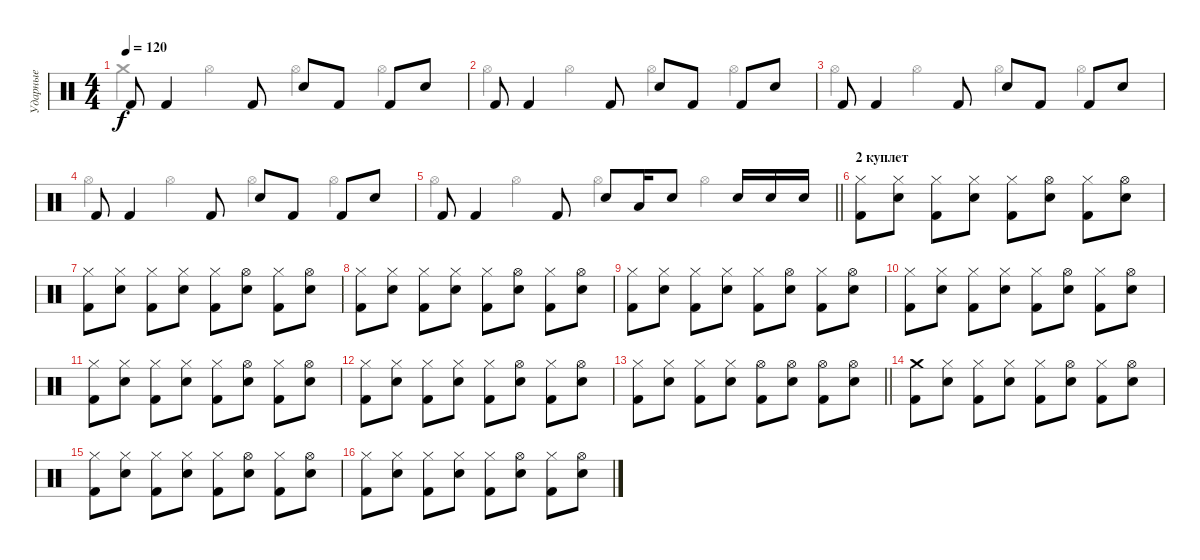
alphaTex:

\track ("Ударные" "Ударные") {instrument percussion}
\staff {score}
\articulation defaults
\voice
\ts (4 4)
\tempo 120
\clef neutral
\ks c "Kick (hit) 2".8{dy f} "Kick (hit) 2".4 "Kick (hit) 2".8 "Electric Snare (hit)".8 "Kick (hit) 2".8 "Kick (hit) 2".8 "Electric Snare (hit)".8
|
"Kick (hit) 2".8 "Kick (hit) 2".4 "Kick (hit) 2".8 "Electric Snare (hit)".8 "Kick (hit) 2".8 "Kick (hit) 2".8 "Electric Snare (hit)".8 |
"Kick (hit) 2".8 "Kick (hit) 2".4 "Kick (hit) 2".8 "Electric Snare (hit)".8 "Kick (hit) 2".8 "Kick (hit) 2".8 "Electric Snare (hit)".8 |
"Kick (hit) 2".8 "Kick (hit) 2".4 "Kick (hit) 2".8 "Electric Snare (hit)".8 "Kick (hit) 2".8 "Kick (hit) 2".8 "Electric Snare (hit)".8 |
\barLineRight lightlight "Kick (hit) 2".8 "Kick (hit) 2".4 "Kick (hit) 2".8 "Electric Snare (hit)".8 "Low Tom (hit)".16 "Electric Snare (hit)".8 "Electric Snare (hit)".16 "Electric Snare (hit)".16 "Electric Snare (hit)".16
|
\section ("" "2 куплет")
("Hi-Hat (closed)" "Kick (hit) 2").8 ("Hi-Hat (closed)" "Electric Snare (hit)").8 ("Hi-Hat (closed)" "Kick (hit) 2").8 ("Hi-Hat (closed)" "Electric Snare (hit)").8 ("Hi-Hat (closed)" "Kick (hit) 2").8 ("Hi-Hat (open)" "Electric Snare (hit)").8 ("Hi-Hat (closed)" "Kick (hit) 2").8 ("Hi-Hat (open)" "Electric Snare (hit)").8 |
("Hi-Hat (closed)" "Kick (hit) 2").8 ("Hi-Hat (closed)" "Electric Snare (hit)").8 ("Hi-Hat (closed)" "Kick (hit) 2").8 ("Hi-Hat (closed)" "Electric Snare (hit)").8 ("Hi-Hat (closed)" "Kick (hit) 2").8 ("Hi-Hat (open)" "Electric Snare (hit)").8 ("Hi-Hat (closed)" "Kick (hit) 2").8 ("Hi-Hat (open)" "Electric Snare (hit)").8 |
("Hi-Hat (closed)" "Kick (hit) 2").8 ("Hi-Hat (closed)" "Electric Snare (hit)").8 ("Hi-Hat (closed)" "Kick (hit) 2").8 ("Hi-Hat (closed)" "Electric Snare (hit)").8 ("Hi-Hat (closed)" "Kick (hit) 2").8 ("Hi-Hat (open)" "Electric Snare (hit)").8 ("Hi-Hat (closed)" "Kick (hit) 2").8 ("Hi-Hat (open)" "Electric Snare (hit)").8 |
("Hi-Hat (closed)" "Kick (hit) 2").8 ("Hi-Hat (closed)" "Electric Snare (hit)").8 ("Hi-Hat (closed)" "Kick (hit) 2").8 ("Hi-Hat (closed)" "Electric Snare (hit)").8 ("Hi-Hat (closed)" "Kick (hit) 2").8 ("Hi-Hat (open)" "Electric Snare (hit)").8 ("Hi-Hat (closed)" "Kick (hit) 2").8 ("Hi-Hat (open)" "Electric Snare (hit)").8 |
("Hi-Hat (closed)" "Kick (hit) 2").8 ("Hi-Hat (closed)" "Electric Snare (hit)").8 ("Hi-Hat (closed)" "Kick (hit) 2").8 ("Hi-Hat (closed)" "Electric Snare (hit)").8 ("Hi-Hat (closed)" "Kick (hit) 2").8 ("Hi-Hat (open)" "Electric Snare (hit)").8 ("Hi-Hat (closed)" "Kick (hit) 2").8 ("Hi-Hat (open)" "Electric Snare (hit)").8 |
("Hi-Hat (closed)" "Kick (hit) 2").8 ("Hi-Hat (closed)" "Electric Snare (hit)").8 ("Hi-Hat (closed)" "Kick (hit) 2").8 ("Hi-Hat (closed)" "Electric Snare (hit)").8 ("Hi-Hat (closed)" "Kick (hit) 2").8 ("Hi-Hat (open)" "Electric Snare (hit)").8 ("Hi-Hat (closed)" "Kick (hit) 2").8 ("Hi-Hat (open)" "Electric Snare (hit)").8 |
("Hi-Hat (closed)" "Kick (hit) 2").8 ("Hi-Hat (closed)" "Electric Snare (hit)").8 ("Hi-Hat (closed)" "Kick (hit) 2").8 ("Hi-Hat (closed)" "Electric Snare (hit)").8 ("Hi-Hat (closed)" "Kick (hit) 2").8 ("Hi-Hat (open)" "Electric Snare (hit)").8 ("Hi-Hat (closed)" "Kick (hit) 2").8 ("Hi-Hat (open)" "Electric Snare (hit)").8 |
\barLineRight lightlight
("Hi-Hat (closed)" "Kick (hit) 2").8 ("Hi-Hat (closed)" "Electric Snare (hit)").8 ("Hi-Hat (closed)" "Kick (hit) 2").8 ("Hi-Hat (closed)" "Electric Snare (hit)").8 ("Hi-Hat (open)" "Kick (hit) 2").8 ("Hi-Hat (open)" "Electric Snare (hit)").8 ("Hi-Hat (open)" "Kick (hit) 2").8 ("Hi-Hat (open)" "Electric Snare (hit)").8 |
("Crash medium (hit)" "Kick (hit) 2").8 ("Hi-Hat (closed)" "Electric Snare (hit)").8 ("Hi-Hat (closed)" "Kick (hit) 2").8 ("Hi-Hat (closed)" "Electric Snare (hit)").8 ("Hi-Hat (closed)" "Kick (hit) 2").8 ("Hi-Hat (open)" "Electric Snare (hit)").8 ("Hi-Hat (closed)" "Kick (hit) 2").8 ("Hi-Hat (open)" "Electric Snare (hit)").8 |
("Hi-Hat (closed)" "Kick (hit) 2").8 ("Hi-Hat (closed)" "Electric Snare (hit)").8 ("Hi-Hat (closed)" "Kick (hit) 2").8 ("Hi-Hat (closed)" "Electric Snare (hit)").8 ("Hi-Hat (closed)" "Kick (hit) 2").8 ("Hi-Hat (open)" "Electric Snare (hit)").8 ("Hi-Hat (closed)" "Kick (hit) 2").8 ("Hi-Hat (open)" "Electric Snare (hit)").8 |
("Hi-Hat (closed)" "Kick (hit) 2").8 ("Hi-Hat (closed)" "Electric Snare (hit)").8 ("Hi-Hat (closed)" "Kick (hit) 2").8 ("Hi-Hat (closed)" "Electric Snare (hit)").8 ("Hi-Hat (closed)" "Kick (hit) 2").8 ("Hi-Hat (open)" "Electric Snare (hit)").8 ("Hi-Hat (closed)" "Kick (hit) 2").8 ("Hi-Hat (open)" "Electric Snare (hit)").8
\voice
\clef neutral
\ottava regular
\simile none
\ks c "Crash medium (hit)".4{dy f} "Hi-Hat (open)".4 "Hi-Hat (open)".4 "Hi-Hat (open)".4
|
"Hi-Hat (open)".4 "Hi-Hat (open)".4 "Hi-Hat (open)".4 "Hi-Hat (open)".4 |
"Hi-Hat (open)".4 "Hi-Hat (open)".4 "Hi-Hat (open)".4 "Hi-Hat (open)".4 |
"Hi-Hat (open)".4 "Hi-Hat (open)".4 "Hi-Hat (open)".4 "Hi-Hat (open)".4 |
\barLineRight lightlight "Hi-Hat (open)".4 "Hi-Hat (open)".4 "Hi-Hat (open)".4 "Hi-Hat (open)".4
|
|
|
|
|
|
|
|
\barLineRight lightlight
|
|
|
